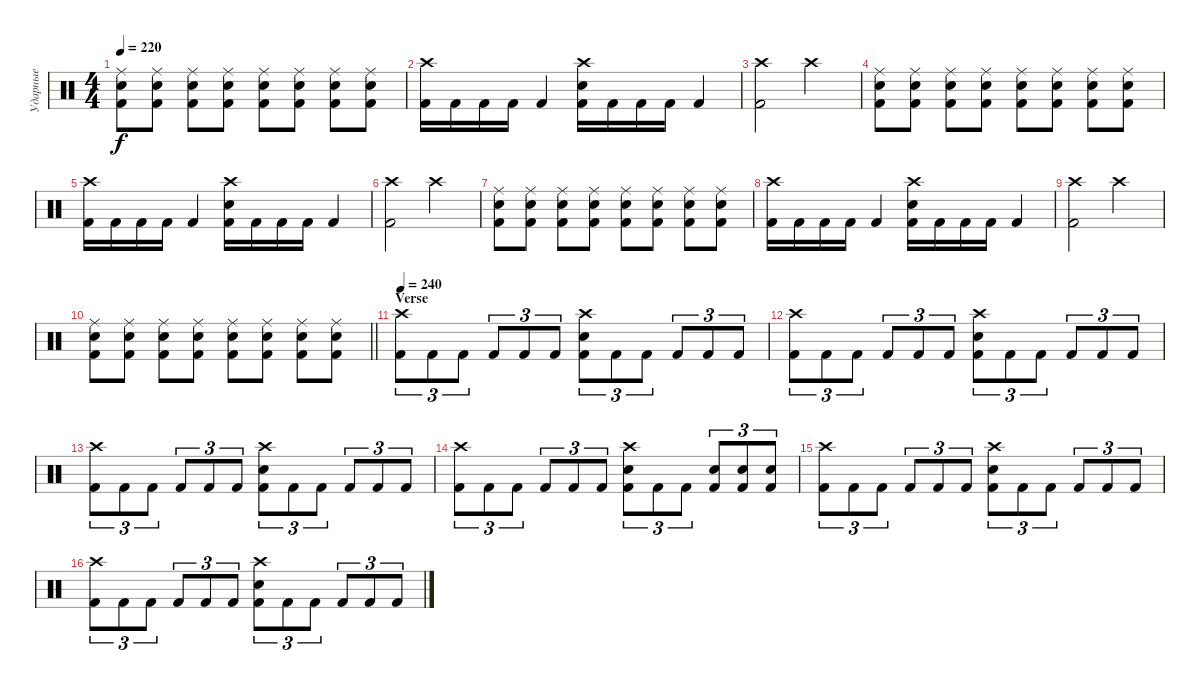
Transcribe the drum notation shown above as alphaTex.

\track ("Ударные" "Ударные") {instrument percussion}
\staff {score}
\articulation defaults
\ts (4 4)
\tempo 220
\clef neutral
\ks c
("Ride (middle)" "Electric Snare (hit)" "Kick (hit) 2").8{dy f} ("Ride (middle)" "Electric Snare (hit)" "Kick (hit) 2").8 ("Ride (middle)" "Electric Snare (hit)" "Kick (hit) 2").8 ("Ride (middle)" "Electric Snare (hit)" "Kick (hit) 2").8 ("Ride (middle)" "Electric Snare (hit)" "Kick (hit) 2").8 ("Ride (middle)" "Electric Snare (hit)" "Kick (hit) 2").8 ("Ride (middle)" "Electric Snare (hit)" "Kick (hit) 2").8 ("Ride (middle)" "Electric Snare (hit)" "Kick (hit) 2").8 |
("Crash high (hit)" "Kick (hit) 2").16 "Kick (hit) 2".16 "Kick (hit) 2".16 "Kick (hit) 2".16 "Kick (hit) 2".4 ("Crash high (hit)" "Electric Snare (hit)" "Kick (hit) 2").16 "Kick (hit) 2".16 "Kick (hit) 2".16 "Kick (hit) 2".16 "Kick (hit) 2".4 |
("Crash high (hit)" "Kick (hit) 2").2 "Crash high (hit)".2 |
("Ride (middle)" "Electric Snare (hit)" "Kick (hit) 2").8 ("Ride (middle)" "Electric Snare (hit)" "Kick (hit) 2").8 ("Ride (middle)" "Electric Snare (hit)" "Kick (hit) 2").8 ("Ride (middle)" "Electric Snare (hit)" "Kick (hit) 2").8 ("Ride (middle)" "Electric Snare (hit)" "Kick (hit) 2").8 ("Ride (middle)" "Electric Snare (hit)" "Kick (hit) 2").8 ("Ride (middle)" "Electric Snare (hit)" "Kick (hit) 2").8 ("Ride (middle)" "Electric Snare (hit)" "Kick (hit) 2").8 |
("Crash high (hit)" "Kick (hit) 2").16 "Kick (hit) 2".16 "Kick (hit) 2".16 "Kick (hit) 2".16 "Kick (hit) 2".4 ("Crash high (hit)" "Electric Snare (hit)" "Kick (hit) 2").16 "Kick (hit) 2".16 "Kick (hit) 2".16 "Kick (hit) 2".16 "Kick (hit) 2".4 |
("Crash high (hit)" "Kick (hit) 2").2 "Crash high (hit)".2 |
("Ride (middle)" "Electric Snare (hit)" "Kick (hit) 2").8 ("Ride (middle)" "Electric Snare (hit)" "Kick (hit) 2").8 ("Ride (middle)" "Electric Snare (hit)" "Kick (hit) 2").8 ("Ride (middle)" "Electric Snare (hit)" "Kick (hit) 2").8 ("Ride (middle)" "Electric Snare (hit)" "Kick (hit) 2").8 ("Ride (middle)" "Electric Snare (hit)" "Kick (hit) 2").8 ("Ride (middle)" "Electric Snare (hit)" "Kick (hit) 2").8 ("Ride (middle)" "Electric Snare (hit)" "Kick (hit) 2").8 |
("Crash high (hit)" "Kick (hit) 2").16 "Kick (hit) 2".16 "Kick (hit) 2".16 "Kick (hit) 2".16 "Kick (hit) 2".4 ("Crash high (hit)" "Electric Snare (hit)" "Kick (hit) 2").16 "Kick (hit) 2".16 "Kick (hit) 2".16 "Kick (hit) 2".16 "Kick (hit) 2".4 |
("Crash high (hit)" "Kick (hit) 2").2 "Crash high (hit)".2 |
\barLineRight lightlight
("Ride (middle)" "Electric Snare (hit)" "Kick (hit) 2").8 ("Ride (middle)" "Electric Snare (hit)" "Kick (hit) 2").8 ("Ride (middle)" "Electric Snare (hit)" "Kick (hit) 2").8 ("Ride (middle)" "Electric Snare (hit)" "Kick (hit) 2").8 ("Ride (middle)" "Electric Snare (hit)" "Kick (hit) 2").8 ("Ride (middle)" "Electric Snare (hit)" "Kick (hit) 2").8 ("Ride (middle)" "Electric Snare (hit)" "Kick (hit) 2").8 ("Ride (middle)" "Electric Snare (hit)" "Kick (hit) 2").8 |
\section ("" "Verse")
\tempo 240
("Crash high (hit)" "Kick (hit) 2").8{tu (3 2)} "Kick (hit) 2".8{tu (3 2)} "Kick (hit) 2".8{tu (3 2)} "Kick (hit) 2".8{tu (3 2)} "Kick (hit) 2".8{tu (3 2)} "Kick (hit) 2".8{tu (3 2)} ("Crash high (hit)" "Electric Snare (hit)" "Kick (hit) 2").8{tu (3 2)} "Kick (hit) 2".8{tu (3 2)} "Kick (hit) 2".8{tu (3 2)} "Kick (hit) 2".8{tu (3 2)} "Kick (hit) 2".8{tu (3 2)} "Kick (hit) 2".8{tu (3 2)} |
("Crash high (hit)" "Kick (hit) 2").8{tu (3 2)} "Kick (hit) 2".8{tu (3 2)} "Kick (hit) 2".8{tu (3 2)} "Kick (hit) 2".8{tu (3 2)} "Kick (hit) 2".8{tu (3 2)} "Kick (hit) 2".8{tu (3 2)} ("Crash high (hit)" "Electric Snare (hit)" "Kick (hit) 2").8{tu (3 2)} "Kick (hit) 2".8{tu (3 2)} "Kick (hit) 2".8{tu (3 2)} "Kick (hit) 2".8{tu (3 2)} "Kick (hit) 2".8{tu (3 2)} "Kick (hit) 2".8{tu (3 2)} |
("Crash high (hit)" "Kick (hit) 2").8{tu (3 2)} "Kick (hit) 2".8{tu (3 2)} "Kick (hit) 2".8{tu (3 2)} "Kick (hit) 2".8{tu (3 2)} "Kick (hit) 2".8{tu (3 2)} "Kick (hit) 2".8{tu (3 2)} ("Crash high (hit)" "Electric Snare (hit)" "Kick (hit) 2").8{tu (3 2)} "Kick (hit) 2".8{tu (3 2)} "Kick (hit) 2".8{tu (3 2)} "Kick (hit) 2".8{tu (3 2)} "Kick (hit) 2".8{tu (3 2)} "Kick (hit) 2".8{tu (3 2)} |
("Crash high (hit)" "Kick (hit) 2").8{tu (3 2)} "Kick (hit) 2".8{tu (3 2)} "Kick (hit) 2".8{tu (3 2)} "Kick (hit) 2".8{tu (3 2)} "Kick (hit) 2".8{tu (3 2)} "Kick (hit) 2".8{tu (3 2)} ("Crash high (hit)" "Electric Snare (hit)" "Kick (hit) 2").8{tu (3 2)} "Kick (hit) 2".8{tu (3 2)} "Kick (hit) 2".8{tu (3 2)} ("Electric Snare (hit)" "Kick (hit) 2").8{tu (3 2)} ("Electric Snare (hit)" "Kick (hit) 2").8{tu (3 2)} ("Electric Snare (hit)" "Kick (hit) 2").8{tu (3 2)} |
("Crash high (hit)" "Kick (hit) 2").8{tu (3 2)} "Kick (hit) 2".8{tu (3 2)} "Kick (hit) 2".8{tu (3 2)} "Kick (hit) 2".8{tu (3 2)} "Kick (hit) 2".8{tu (3 2)} "Kick (hit) 2".8{tu (3 2)} ("Crash high (hit)" "Electric Snare (hit)" "Kick (hit) 2").8{tu (3 2)} "Kick (hit) 2".8{tu (3 2)} "Kick (hit) 2".8{tu (3 2)} "Kick (hit) 2".8{tu (3 2)} "Kick (hit) 2".8{tu (3 2)} "Kick (hit) 2".8{tu (3 2)} |
("Crash high (hit)" "Kick (hit) 2").8{tu (3 2)} "Kick (hit) 2".8{tu (3 2)} "Kick (hit) 2".8{tu (3 2)} "Kick (hit) 2".8{tu (3 2)} "Kick (hit) 2".8{tu (3 2)} "Kick (hit) 2".8{tu (3 2)} ("Crash high (hit)" "Electric Snare (hit)" "Kick (hit) 2").8{tu (3 2)} "Kick (hit) 2".8{tu (3 2)} "Kick (hit) 2".8{tu (3 2)} "Kick (hit) 2".8{tu (3 2)} "Kick (hit) 2".8{tu (3 2)} "Kick (hit) 2".8{tu (3 2)}
